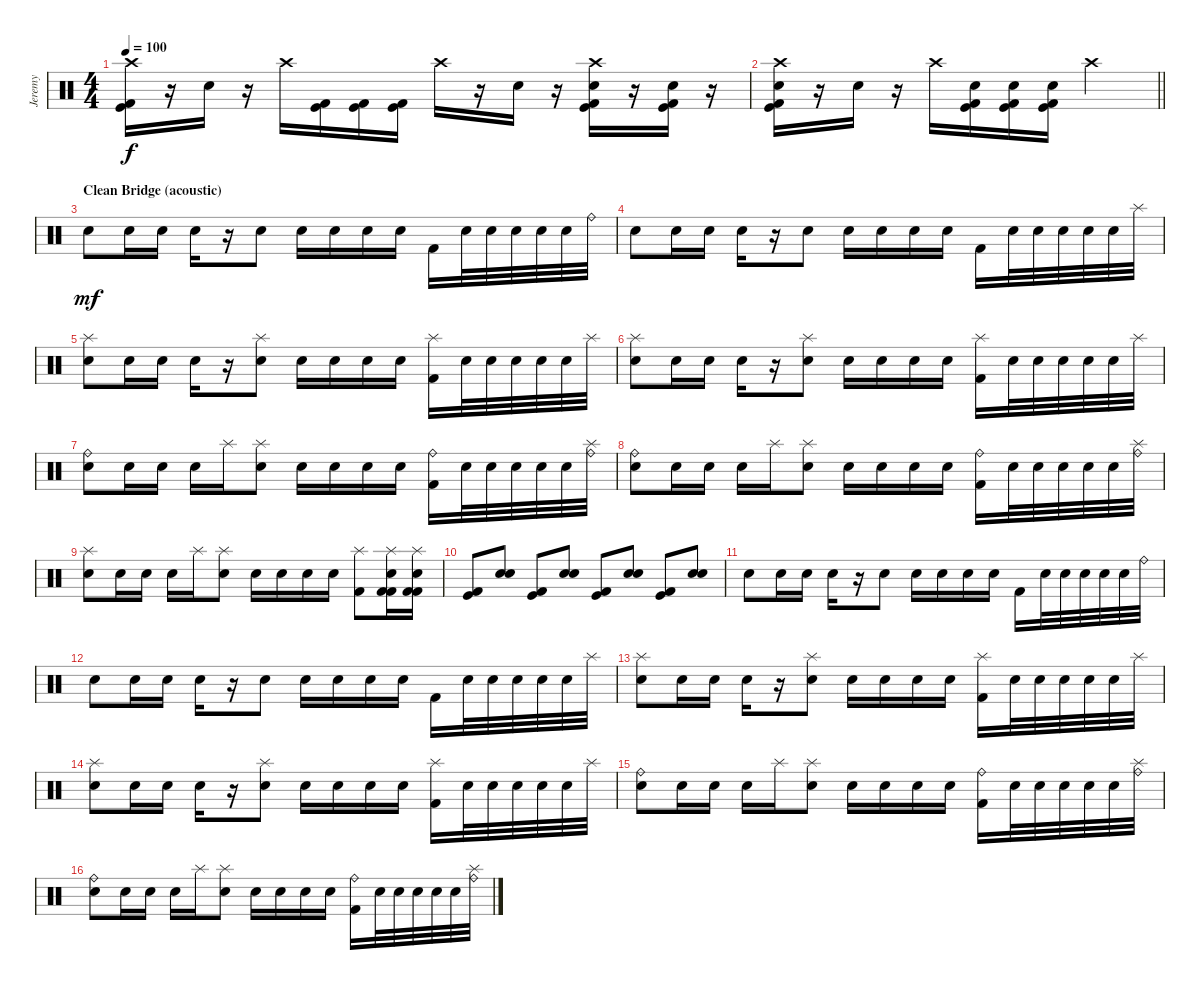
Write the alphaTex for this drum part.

\track ("Jeremy" "Jeremy") {instrument percussion}
\staff {score}
\articulation defaults
\ts (4 4)
\tempo 100
\clef neutral
\ks c
("Crash high (hit)" "Kick (hit)" "Kick (hit) 2").16{dy f} r.16 "Electric Snare (hit)".16 r.16 "Crash high (hit)".16 ("Kick (hit) 2" "Kick (hit)").16 ("Kick (hit) 2" "Kick (hit)").16 ("Kick (hit)" "Kick (hit) 2").16 "Crash high (hit)".16 r.16 "Electric Snare (hit)".16 r.16 ("Crash high (hit)" "Electric Snare (hit)" "Kick (hit)" "Kick (hit) 2").16 r.16 ("Electric Snare (hit)" "Kick (hit)" "Kick (hit) 2").16 r.16 |
\barLineRight lightlight
("Crash high (hit)" "Electric Snare (hit)" "Kick (hit)" "Kick (hit) 2").16 r.16 "Electric Snare (hit)".16 r.16 "Crash high (hit)".16 ("Electric Snare (hit)" "Kick (hit) 2" "Kick (hit)").16 ("Electric Snare (hit)" "Kick (hit) 2" "Kick (hit)").16 ("Electric Snare (hit)" "Kick (hit)" "Kick (hit) 2").16 "Crash high (hit)".2 |
\section ("" "Clean Bridge (acoustic)")
"Snare (hit) 2".8{dy mf volume 3} "Electric Snare (hit)".16 "Snare (hit) 2".16 "Electric Snare (hit)".16 r.16 "Snare (hit) 2".8 "Electric Snare (hit)".16 "Snare (hit) 2".16 "Electric Snare (hit)".16 "Snare (hit) 2".16 "Kick (hit) 2".16 "Snare (hit) 2".32 "Electric Snare (hit)".32 "Snare (hit) 2".32 "Electric Snare (hit)".32 "Snare (hit) 2".32 "Ride (bell)".32 |
"Snare (hit) 2".8 "Electric Snare (hit)".16 "Snare (hit) 2".16 "Electric Snare (hit)".16 r.16 "Snare (hit) 2".8 "Electric Snare (hit)".16 "Snare (hit) 2".16 "Electric Snare (hit)".16 "Snare (hit) 2".16 "Kick (hit) 2".16 "Snare (hit) 2".32 "Electric Snare (hit)".32 "Snare (hit) 2".32 "Electric Snare (hit)".32 "Snare (hit) 2".32 "Splash (hit)".32 |
("Splash (hit)" "Snare (hit) 2").8 "Electric Snare (hit)".16 "Snare (hit) 2".16 "Electric Snare (hit)".16 r.16 ("Splash (hit)" "Snare (hit) 2").8 "Electric Snare (hit)".16 "Snare (hit) 2".16 "Electric Snare (hit)".16 "Snare (hit) 2".16 ("Splash (hit)" "Kick (hit) 2").16 "Snare (hit) 2".32 "Electric Snare (hit)".32 "Snare (hit) 2".32 "Electric Snare (hit)".32 "Snare (hit) 2".32 "Splash (hit)".32 |
("Splash (hit)" "Snare (hit) 2").8 "Electric Snare (hit)".16 "Snare (hit) 2".16 "Electric Snare (hit)".16 r.16 ("Splash (hit)" "Snare (hit) 2").8 "Electric Snare (hit)".16 "Snare (hit) 2".16 "Electric Snare (hit)".16 "Snare (hit) 2".16 ("Splash (hit)" "Kick (hit) 2").16 "Snare (hit) 2".32 "Electric Snare (hit)".32 "Snare (hit) 2".32 "Electric Snare (hit)".32 "Snare (hit) 2".32 "Splash (hit)".32 |
("Ride (bell)" "Snare (hit) 2").8 "Electric Snare (hit)".16 "Snare (hit) 2".16 "Electric Snare (hit)".16 "Splash (hit)".16 ("Splash (hit)" "Snare (hit) 2").8 "Electric Snare (hit)".16 "Snare (hit) 2".16 "Electric Snare (hit)".16 "Snare (hit) 2".16 ("Ride (bell)" "Kick (hit) 2").16 "Snare (hit) 2".32 "Electric Snare (hit)".32 "Snare (hit) 2".32 "Electric Snare (hit)".32 "Snare (hit) 2".32 ("Splash (hit)" "Ride (bell)").32 |
("Ride (bell)" "Snare (hit) 2").8 "Electric Snare (hit)".16 "Snare (hit) 2".16 "Electric Snare (hit)".16 "Splash (hit)".16 ("Splash (hit)" "Snare (hit) 2").8 "Electric Snare (hit)".16 "Snare (hit) 2".16 "Electric Snare (hit)".16 "Snare (hit) 2".16 ("Ride (bell)" "Kick (hit) 2").16 "Snare (hit) 2".32 "Electric Snare (hit)".32 "Snare (hit) 2".32 "Electric Snare (hit)".32 "Snare (hit) 2".32 ("Splash (hit)" "Ride (bell)").32 |
("Splash (hit)" "Snare (hit) 2").8 "Electric Snare (hit)".16 "Snare (hit) 2".16 "Electric Snare (hit)".16 "Splash (hit)".16 ("Splash (hit)" "Snare (hit) 2").8 "Electric Snare (hit)".16 "Snare (hit) 2".16 "Electric Snare (hit)".16 "Snare (hit) 2".16 ("Splash (hit)" "Kick (hit) 2").8 ("Splash (hit)" "Electric Snare (hit)" "Kick (hit) 2" "Kick (hit) 2").16 ("Splash (hit)" "Electric Snare (hit)" "Kick (hit) 2" "Kick (hit) 2").16 |
("Kick (hit) 2" "Kick (hit)").8 ("Snare (hit) 2" "Electric Snare (hit)").8 ("Kick (hit) 2" "Kick (hit)").8 ("Snare (hit) 2" "Electric Snare (hit)").8 ("Kick (hit) 2" "Kick (hit)").8 ("Snare (hit) 2" "Electric Snare (hit)").8 ("Kick (hit) 2" "Kick (hit)").8 ("Snare (hit) 2" "Electric Snare (hit)").8 |
"Snare (hit) 2".8 "Electric Snare (hit)".16 "Snare (hit) 2".16 "Electric Snare (hit)".16 r.16 "Snare (hit) 2".8 "Electric Snare (hit)".16 "Snare (hit) 2".16 "Electric Snare (hit)".16 "Snare (hit) 2".16 "Kick (hit) 2".16 "Snare (hit) 2".32 "Electric Snare (hit)".32 "Snare (hit) 2".32 "Electric Snare (hit)".32 "Snare (hit) 2".32 "Ride (bell)".32 |
"Snare (hit) 2".8 "Electric Snare (hit)".16 "Snare (hit) 2".16 "Electric Snare (hit)".16 r.16 "Snare (hit) 2".8 "Electric Snare (hit)".16 "Snare (hit) 2".16 "Electric Snare (hit)".16 "Snare (hit) 2".16 "Kick (hit) 2".16 "Snare (hit) 2".32 "Electric Snare (hit)".32 "Snare (hit) 2".32 "Electric Snare (hit)".32 "Snare (hit) 2".32 "Splash (hit)".32 |
("Splash (hit)" "Snare (hit) 2").8 "Electric Snare (hit)".16 "Snare (hit) 2".16 "Electric Snare (hit)".16 r.16 ("Splash (hit)" "Snare (hit) 2").8 "Electric Snare (hit)".16 "Snare (hit) 2".16 "Electric Snare (hit)".16 "Snare (hit) 2".16 ("Splash (hit)" "Kick (hit) 2").16 "Snare (hit) 2".32 "Electric Snare (hit)".32 "Snare (hit) 2".32 "Electric Snare (hit)".32 "Snare (hit) 2".32 "Splash (hit)".32 |
("Splash (hit)" "Snare (hit) 2").8 "Electric Snare (hit)".16 "Snare (hit) 2".16 "Electric Snare (hit)".16 r.16 ("Splash (hit)" "Snare (hit) 2").8 "Electric Snare (hit)".16 "Snare (hit) 2".16 "Electric Snare (hit)".16 "Snare (hit) 2".16 ("Splash (hit)" "Kick (hit) 2").16 "Snare (hit) 2".32 "Electric Snare (hit)".32 "Snare (hit) 2".32 "Electric Snare (hit)".32 "Snare (hit) 2".32 "Splash (hit)".32 |
("Ride (bell)" "Snare (hit) 2").8 "Electric Snare (hit)".16 "Snare (hit) 2".16 "Electric Snare (hit)".16 "Splash (hit)".16 ("Splash (hit)" "Snare (hit) 2").8 "Electric Snare (hit)".16 "Snare (hit) 2".16 "Electric Snare (hit)".16 "Snare (hit) 2".16 ("Ride (bell)" "Kick (hit) 2").16 "Snare (hit) 2".32 "Electric Snare (hit)".32 "Snare (hit) 2".32 "Electric Snare (hit)".32 "Snare (hit) 2".32 ("Splash (hit)" "Ride (bell)").32 |
("Ride (bell)" "Snare (hit) 2").8 "Electric Snare (hit)".16 "Snare (hit) 2".16 "Electric Snare (hit)".16 "Splash (hit)".16 ("Splash (hit)" "Snare (hit) 2").8 "Electric Snare (hit)".16 "Snare (hit) 2".16 "Electric Snare (hit)".16 "Snare (hit) 2".16 ("Ride (bell)" "Kick (hit) 2").16 "Snare (hit) 2".32 "Electric Snare (hit)".32 "Snare (hit) 2".32 "Electric Snare (hit)".32 "Snare (hit) 2".32 ("Splash (hit)" "Ride (bell)").32
